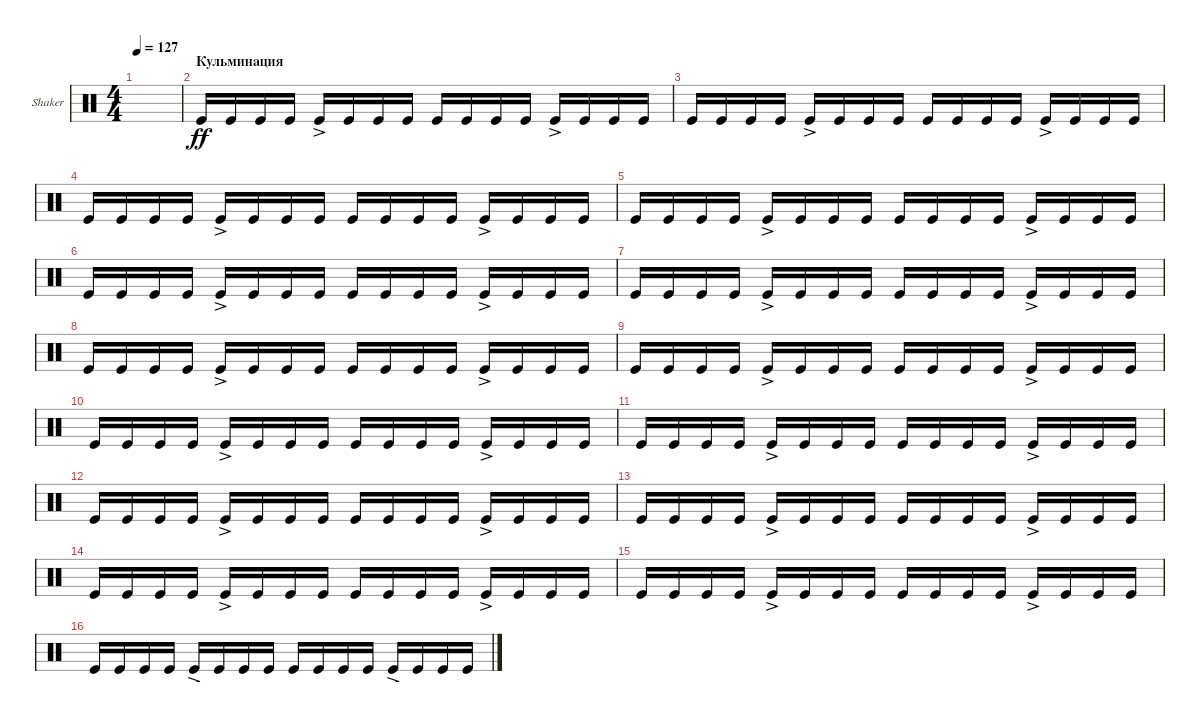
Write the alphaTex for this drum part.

\defaultSystemsLayout 4
\bracketExtendMode groupsimilarinstruments
\firstSystemTrackNameOrientation horizontal
\otherSystemsTrackNameOrientation horizontal
\track ("Shaker" "Shaker") {instrument percussion}
\staff {score}
\articulation defaults
\ts (4 4)
\tempo 127
\clef neutral
\scale
0.333333
\ks c
|
\section ("" "Кульминация")
\scale
0.333333 "Kick (hit)".16{dy ff} "Kick (hit)".16 "Kick (hit)".16 "Kick (hit)".16 "Kick (hit)"{ac}.16 "Kick (hit)".16 "Kick (hit)".16 "Kick (hit)".16 "Kick (hit)".16 "Kick (hit)".16 "Kick (hit)".16 "Kick (hit)".16 "Kick (hit)"{ac}.16 "Kick (hit)".16 "Kick (hit)".16 "Kick (hit)".16 |
\scale
0.333333 "Kick (hit)".16 "Kick (hit)".16 "Kick (hit)".16 "Kick (hit)".16 "Kick (hit)"{ac}.16 "Kick (hit)".16 "Kick (hit)".16 "Kick (hit)".16 "Kick (hit)".16 "Kick (hit)".16 "Kick (hit)".16 "Kick (hit)".16 "Kick (hit)"{ac}.16 "Kick (hit)".16 "Kick (hit)".16 "Kick (hit)".16 |
\scale
0.333333 "Kick (hit)".16 "Kick (hit)".16 "Kick (hit)".16 "Kick (hit)".16 "Kick (hit)"{ac}.16 "Kick (hit)".16 "Kick (hit)".16 "Kick (hit)".16 "Kick (hit)".16 "Kick (hit)".16 "Kick (hit)".16 "Kick (hit)".16 "Kick (hit)"{ac}.16 "Kick (hit)".16 "Kick (hit)".16 "Kick (hit)".16 |
\scale
0.333333 "Kick (hit)".16 "Kick (hit)".16 "Kick (hit)".16 "Kick (hit)".16 "Kick (hit)"{ac}.16 "Kick (hit)".16 "Kick (hit)".16 "Kick (hit)".16 "Kick (hit)".16 "Kick (hit)".16 "Kick (hit)".16 "Kick (hit)".16 "Kick (hit)"{ac}.16 "Kick (hit)".16 "Kick (hit)".16 "Kick (hit)".16 |
\scale
0.333333 "Kick (hit)".16 "Kick (hit)".16 "Kick (hit)".16 "Kick (hit)".16 "Kick (hit)"{ac}.16 "Kick (hit)".16 "Kick (hit)".16 "Kick (hit)".16 "Kick (hit)".16 "Kick (hit)".16 "Kick (hit)".16 "Kick (hit)".16 "Kick (hit)"{ac}.16 "Kick (hit)".16 "Kick (hit)".16 "Kick (hit)".16 |
\scale
0.333333 "Kick (hit)".16 "Kick (hit)".16 "Kick (hit)".16 "Kick (hit)".16 "Kick (hit)"{ac}.16 "Kick (hit)".16 "Kick (hit)".16 "Kick (hit)".16 "Kick (hit)".16 "Kick (hit)".16 "Kick (hit)".16 "Kick (hit)".16 "Kick (hit)"{ac}.16 "Kick (hit)".16 "Kick (hit)".16 "Kick (hit)".16 |
\scale
0.333333 "Kick (hit)".16 "Kick (hit)".16 "Kick (hit)".16 "Kick (hit)".16 "Kick (hit)"{ac}.16 "Kick (hit)".16 "Kick (hit)".16 "Kick (hit)".16 "Kick (hit)".16 "Kick (hit)".16 "Kick (hit)".16 "Kick (hit)".16 "Kick (hit)"{ac}.16 "Kick (hit)".16 "Kick (hit)".16 "Kick (hit)".16 |
\scale
0.333333 "Kick (hit)".16 "Kick (hit)".16 "Kick (hit)".16 "Kick (hit)".16 "Kick (hit)"{ac}.16 "Kick (hit)".16 "Kick (hit)".16 "Kick (hit)".16 "Kick (hit)".16 "Kick (hit)".16 "Kick (hit)".16 "Kick (hit)".16 "Kick (hit)"{ac}.16 "Kick (hit)".16 "Kick (hit)".16 "Kick (hit)".16 |
\scale
0.333333 "Kick (hit)".16 "Kick (hit)".16 "Kick (hit)".16 "Kick (hit)".16 "Kick (hit)"{ac}.16 "Kick (hit)".16 "Kick (hit)".16 "Kick (hit)".16 "Kick (hit)".16 "Kick (hit)".16 "Kick (hit)".16 "Kick (hit)".16 "Kick (hit)"{ac}.16 "Kick (hit)".16 "Kick (hit)".16 "Kick (hit)".16 |
\scale
0.333333 "Kick (hit)".16 "Kick (hit)".16 "Kick (hit)".16 "Kick (hit)".16 "Kick (hit)"{ac}.16 "Kick (hit)".16 "Kick (hit)".16 "Kick (hit)".16 "Kick (hit)".16 "Kick (hit)".16 "Kick (hit)".16 "Kick (hit)".16 "Kick (hit)"{ac}.16 "Kick (hit)".16 "Kick (hit)".16 "Kick (hit)".16 |
\scale
0.333333 "Kick (hit)".16 "Kick (hit)".16 "Kick (hit)".16 "Kick (hit)".16 "Kick (hit)"{ac}.16 "Kick (hit)".16 "Kick (hit)".16 "Kick (hit)".16 "Kick (hit)".16 "Kick (hit)".16 "Kick (hit)".16 "Kick (hit)".16 "Kick (hit)"{ac}.16 "Kick (hit)".16 "Kick (hit)".16 "Kick (hit)".16 |
\scale
0.333333 "Kick (hit)".16 "Kick (hit)".16 "Kick (hit)".16 "Kick (hit)".16 "Kick (hit)"{ac}.16 "Kick (hit)".16 "Kick (hit)".16 "Kick (hit)".16 "Kick (hit)".16 "Kick (hit)".16 "Kick (hit)".16 "Kick (hit)".16 "Kick (hit)"{ac}.16 "Kick (hit)".16 "Kick (hit)".16 "Kick (hit)".16 |
\scale
0.333333 "Kick (hit)".16 "Kick (hit)".16 "Kick (hit)".16 "Kick (hit)".16 "Kick (hit)"{ac}.16 "Kick (hit)".16 "Kick (hit)".16 "Kick (hit)".16 "Kick (hit)".16 "Kick (hit)".16 "Kick (hit)".16 "Kick (hit)".16 "Kick (hit)"{ac}.16 "Kick (hit)".16 "Kick (hit)".16 "Kick (hit)".16 |
\scale
0.333333 "Kick (hit)".16 "Kick (hit)".16 "Kick (hit)".16 "Kick (hit)".16 "Kick (hit)"{ac}.16 "Kick (hit)".16 "Kick (hit)".16 "Kick (hit)".16 "Kick (hit)".16 "Kick (hit)".16 "Kick (hit)".16 "Kick (hit)".16 "Kick (hit)"{ac}.16 "Kick (hit)".16 "Kick (hit)".16 "Kick (hit)".16 |
\scale
0.333333 "Kick (hit)".16 "Kick (hit)".16 "Kick (hit)".16 "Kick (hit)".16 "Kick (hit)"{ac}.16 "Kick (hit)".16 "Kick (hit)".16 "Kick (hit)".16 "Kick (hit)".16 "Kick (hit)".16 "Kick (hit)".16 "Kick (hit)".16 "Kick (hit)"{ac}.16 "Kick (hit)".16 "Kick (hit)".16 "Kick (hit)".16
